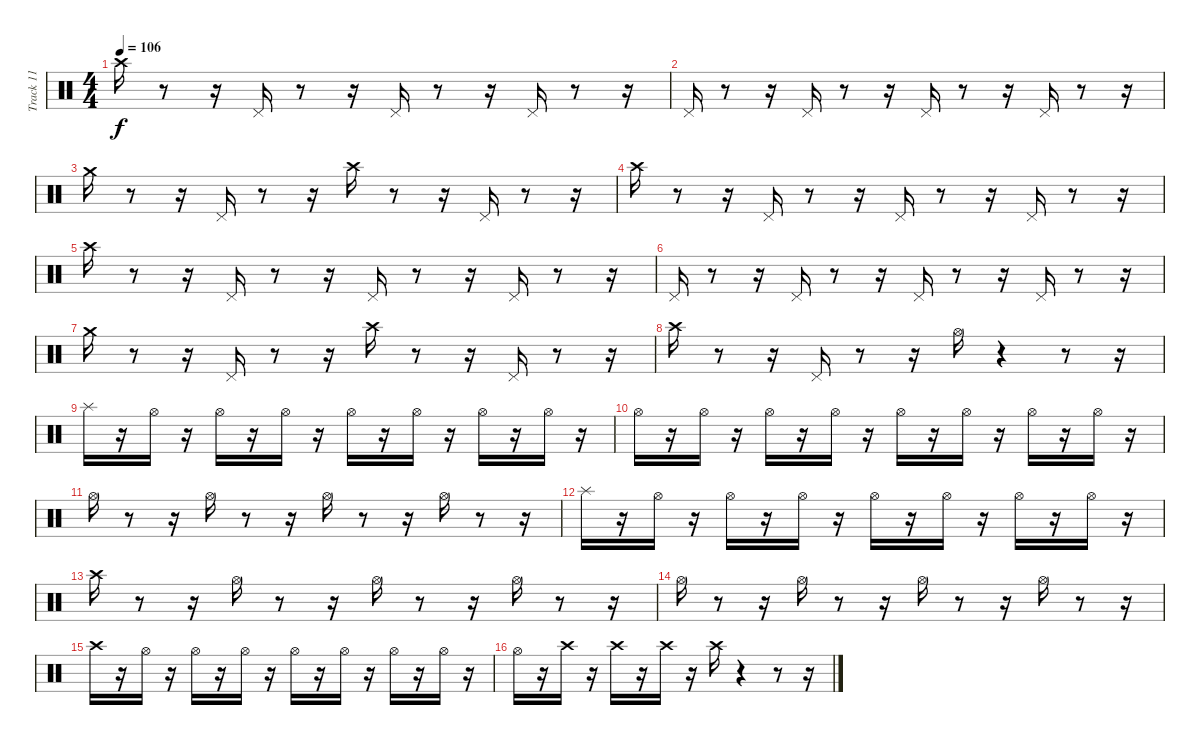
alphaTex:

\track ("Track 11" "Track 11") {instrument percussion}
\staff {score}
\articulation defaults
\ts (4 4)
\tempo 106
\clef neutral
\ks c "Crash high (hit)".16{dy f}
r.8 r.16 "Pedal Hi-Hat (hit)".16 r.8 r.16 "Pedal Hi-Hat (hit)".16 r.8 r.16 "Pedal Hi-Hat (hit)".16 r.8 r.16 |
"Pedal Hi-Hat (hit)".16 r.8 r.16 "Pedal Hi-Hat (hit)".16 r.8 r.16 "Pedal Hi-Hat (hit)".16 r.8 r.16 "Pedal Hi-Hat (hit)".16 r.8 r.16 |
"Crash medium (hit)".16 r.8 r.16 "Pedal Hi-Hat (hit)".16 r.8 r.16 "Crash high (hit)".16 r.8 r.16 "Pedal Hi-Hat (hit)".16 r.8 r.16 |
"Crash high (hit)".16 r.8 r.16 "Pedal Hi-Hat (hit)".16 r.8 r.16 "Pedal Hi-Hat (hit)".16 r.8 r.16 "Pedal Hi-Hat (hit)".16 r.8 r.16 |
"Crash high (hit)".16 r.8 r.16 "Pedal Hi-Hat (hit)".16 r.8 r.16 "Pedal Hi-Hat (hit)".16 r.8 r.16 "Pedal Hi-Hat (hit)".16 r.8 r.16 |
"Pedal Hi-Hat (hit)".16 r.8 r.16 "Pedal Hi-Hat (hit)".16 r.8 r.16 "Pedal Hi-Hat (hit)".16 r.8 r.16 "Pedal Hi-Hat (hit)".16 r.8 r.16 |
"Crash medium (hit)".16 r.8 r.16 "Pedal Hi-Hat (hit)".16 r.8 r.16 "Crash high (hit)".16 r.8 r.16 "Pedal Hi-Hat (hit)".16 r.8 r.16 |
"Crash high (hit)".16 r.8 r.16 "Pedal Hi-Hat (hit)".16 r.8 r.16 "Hi-Hat (open)".16 r.4 r.8 r.16 |
"Splash (hit)".16 r.16 "Hi-Hat (open)".16 r.16 "Hi-Hat (open)".16 r.16 "Hi-Hat (open)".16 r.16 "Hi-Hat (open)".16 r.16 "Hi-Hat (open)".16 r.16 "Hi-Hat (open)".16 r.16 "Hi-Hat (open)".16 r.16 |
"Hi-Hat (open)".16 r.16 "Hi-Hat (open)".16 r.16 "Hi-Hat (open)".16 r.16 "Hi-Hat (open)".16 r.16 "Hi-Hat (open)".16 r.16 "Hi-Hat (open)".16 r.16 "Hi-Hat (open)".16 r.16 "Hi-Hat (open)".16 r.16 |
"Hi-Hat (open)".16 r.8 r.16 "Hi-Hat (open)".16 r.8 r.16 "Hi-Hat (open)".16 r.8 r.16 "Hi-Hat (open)".16 r.8 r.16 |
"Splash (hit)".16 r.16 "Hi-Hat (open)".16 r.16 "Hi-Hat (open)".16 r.16 "Hi-Hat (open)".16 r.16 "Hi-Hat (open)".16 r.16 "Hi-Hat (open)".16 r.16 "Hi-Hat (open)".16 r.16 "Hi-Hat (open)".16 r.16 |
"Crash high (hit)".16 r.8 r.16 "Hi-Hat (open)".16 r.8 r.16 "Hi-Hat (open)".16 r.8 r.16 "Hi-Hat (open)".16 r.8 r.16 |
"Hi-Hat (open)".16 r.8 r.16 "Hi-Hat (open)".16 r.8 r.16 "Hi-Hat (open)".16 r.8 r.16 "Hi-Hat (open)".16 r.8 r.16 |
"Crash high (hit)".16 r.16 "Hi-Hat (open)".16 r.16 "Hi-Hat (open)".16 r.16 "Hi-Hat (open)".16 r.16 "Hi-Hat (open)".16 r.16 "Hi-Hat (open)".16 r.16 "Hi-Hat (open)".16 r.16 "Hi-Hat (open)".16 r.16 |
"Hi-Hat (open)".16 r.16 "Crash high (hit)".16 r.16 "Crash high (hit)".16 r.16 "Crash high (hit)".16 r.16 "Crash high (hit)".16 r.4 r.8 r.16
